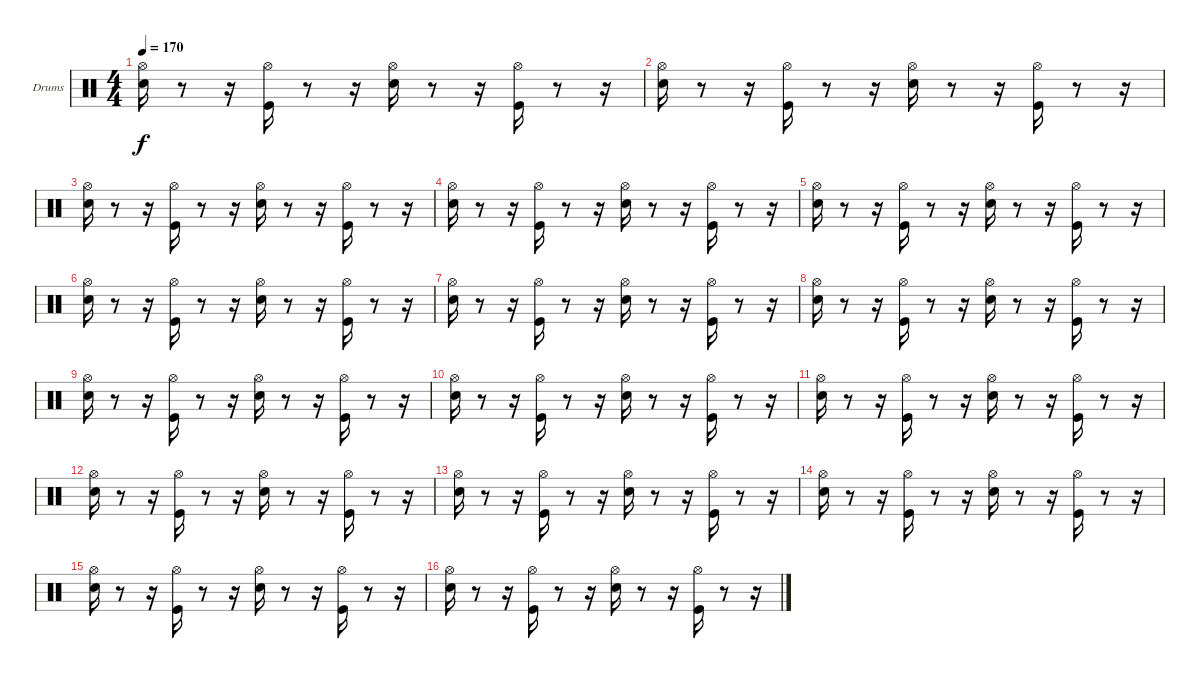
\bracketExtendMode groupsimilarinstruments
\firstSystemTrackNameOrientation horizontal
\otherSystemsTrackNameOrientation horizontal
\track ("Thomas" "Drums") {instrument percussion}
\staff {score}
\articulation defaults
\ts (4 4)
\tempo 170
\clef neutral
\ks c
("Snare (hit) 2" "Hi-Hat (open)").16{dy f} r.8 r.16 ("Kick (hit)" "Hi-Hat (open)").16 r.8 r.16 ("Snare (hit) 2" "Hi-Hat (open)").16 r.8 r.16 ("Kick (hit)" "Hi-Hat (open)").16 r.8 r.16 |
("Snare (hit) 2" "Hi-Hat (open)").16 r.8 r.16 ("Kick (hit)" "Hi-Hat (open)").16 r.8 r.16 ("Snare (hit) 2" "Hi-Hat (open)").16 r.8 r.16 ("Kick (hit)" "Hi-Hat (open)").16 r.8 r.16 |
("Snare (hit) 2" "Hi-Hat (open)").16 r.8 r.16 ("Kick (hit)" "Hi-Hat (open)").16 r.8 r.16 ("Snare (hit) 2" "Hi-Hat (open)").16 r.8 r.16 ("Kick (hit)" "Hi-Hat (open)").16 r.8 r.16 |
("Snare (hit) 2" "Hi-Hat (open)").16 r.8 r.16 ("Kick (hit)" "Hi-Hat (open)").16 r.8 r.16 ("Snare (hit) 2" "Hi-Hat (open)").16 r.8 r.16 ("Kick (hit)" "Hi-Hat (open)").16 r.8 r.16 |
("Snare (hit) 2" "Hi-Hat (open)").16 r.8 r.16 ("Kick (hit)" "Hi-Hat (open)").16 r.8 r.16 ("Snare (hit) 2" "Hi-Hat (open)").16 r.8 r.16 ("Kick (hit)" "Hi-Hat (open)").16 r.8 r.16 |
("Snare (hit) 2" "Hi-Hat (open)").16 r.8 r.16 ("Kick (hit)" "Hi-Hat (open)").16 r.8 r.16 ("Snare (hit) 2" "Hi-Hat (open)").16 r.8 r.16 ("Kick (hit)" "Hi-Hat (open)").16 r.8 r.16 |
("Snare (hit) 2" "Hi-Hat (open)").16 r.8 r.16 ("Kick (hit)" "Hi-Hat (open)").16 r.8 r.16 ("Snare (hit) 2" "Hi-Hat (open)").16 r.8 r.16 ("Kick (hit)" "Hi-Hat (open)").16 r.8 r.16 |
("Snare (hit) 2" "Hi-Hat (open)").16 r.8 r.16 ("Kick (hit)" "Hi-Hat (open)").16 r.8 r.16 ("Snare (hit) 2" "Hi-Hat (open)").16 r.8 r.16 ("Kick (hit)" "Hi-Hat (open)").16 r.8 r.16 |
("Snare (hit) 2" "Hi-Hat (open)").16 r.8 r.16 ("Kick (hit)" "Hi-Hat (open)").16 r.8 r.16 ("Snare (hit) 2" "Hi-Hat (open)").16 r.8 r.16 ("Kick (hit)" "Hi-Hat (open)").16 r.8 r.16 |
("Snare (hit) 2" "Hi-Hat (open)").16 r.8 r.16 ("Kick (hit)" "Hi-Hat (open)").16 r.8 r.16 ("Snare (hit) 2" "Hi-Hat (open)").16 r.8 r.16 ("Kick (hit)" "Hi-Hat (open)").16 r.8 r.16 |
("Snare (hit) 2" "Hi-Hat (open)").16 r.8 r.16 ("Kick (hit)" "Hi-Hat (open)").16 r.8 r.16 ("Snare (hit) 2" "Hi-Hat (open)").16 r.8 r.16 ("Kick (hit)" "Hi-Hat (open)").16 r.8 r.16 |
("Snare (hit) 2" "Hi-Hat (open)").16 r.8 r.16 ("Kick (hit)" "Hi-Hat (open)").16 r.8 r.16 ("Snare (hit) 2" "Hi-Hat (open)").16 r.8 r.16 ("Kick (hit)" "Hi-Hat (open)").16 r.8 r.16 |
("Snare (hit) 2" "Hi-Hat (open)").16 r.8 r.16 ("Kick (hit)" "Hi-Hat (open)").16 r.8 r.16 ("Snare (hit) 2" "Hi-Hat (open)").16 r.8 r.16 ("Kick (hit)" "Hi-Hat (open)").16 r.8 r.16 |
("Snare (hit) 2" "Hi-Hat (open)").16 r.8 r.16 ("Kick (hit)" "Hi-Hat (open)").16 r.8 r.16 ("Snare (hit) 2" "Hi-Hat (open)").16 r.8 r.16 ("Kick (hit)" "Hi-Hat (open)").16 r.8 r.16 |
("Snare (hit) 2" "Hi-Hat (open)").16 r.8 r.16 ("Kick (hit)" "Hi-Hat (open)").16 r.8 r.16 ("Snare (hit) 2" "Hi-Hat (open)").16 r.8 r.16 ("Kick (hit)" "Hi-Hat (open)").16 r.8 r.16 |
("Snare (hit) 2" "Hi-Hat (open)").16 r.8 r.16 ("Kick (hit)" "Hi-Hat (open)").16 r.8 r.16 ("Snare (hit) 2" "Hi-Hat (open)").16 r.8 r.16 ("Kick (hit)" "Hi-Hat (open)").16 r.8 r.16
